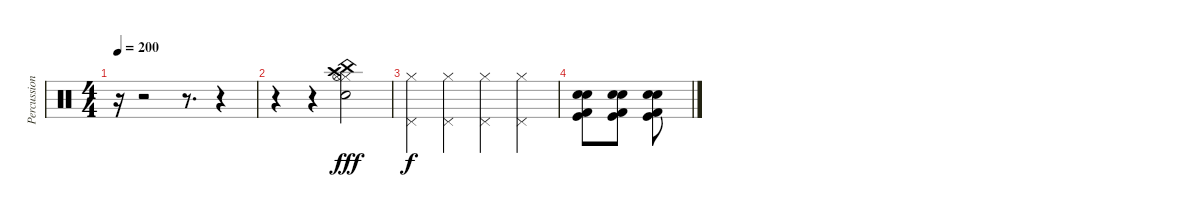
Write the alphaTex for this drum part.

\track ("Percussion" "Percussion") {instrument percussion}
\staff {score}
\articulation defaults
\ts (4 4)
\tempo 200
\clef neutral
\ks c
r.16{dy f} r.2 r.8{d} r.4 |
r.4 r.4 ("Snare (hit) 2" "China (hit)" "Hi-Hat (closed)" "Hi-Hat (open)" "Crash high (hit)").2{dy fff} |
("Hi-Hat (closed)" "Pedal Hi-Hat (hit)").4{dy f} ("Hi-Hat (closed)" "Pedal Hi-Hat (hit)").4 ("Hi-Hat (closed)" "Pedal Hi-Hat (hit)").4 ("Hi-Hat (closed)" "Pedal Hi-Hat (hit)").4 |
("Kick (hit) 2" "Snare (hit) 2" "Kick (hit)" "Electric Snare (hit)").8 ("Kick (hit) 2" "Snare (hit) 2" "Kick (hit)" "Electric Snare (hit)").8 ("Kick (hit) 2" "Snare (hit) 2" "Kick (hit)" "Electric Snare (hit)").8
